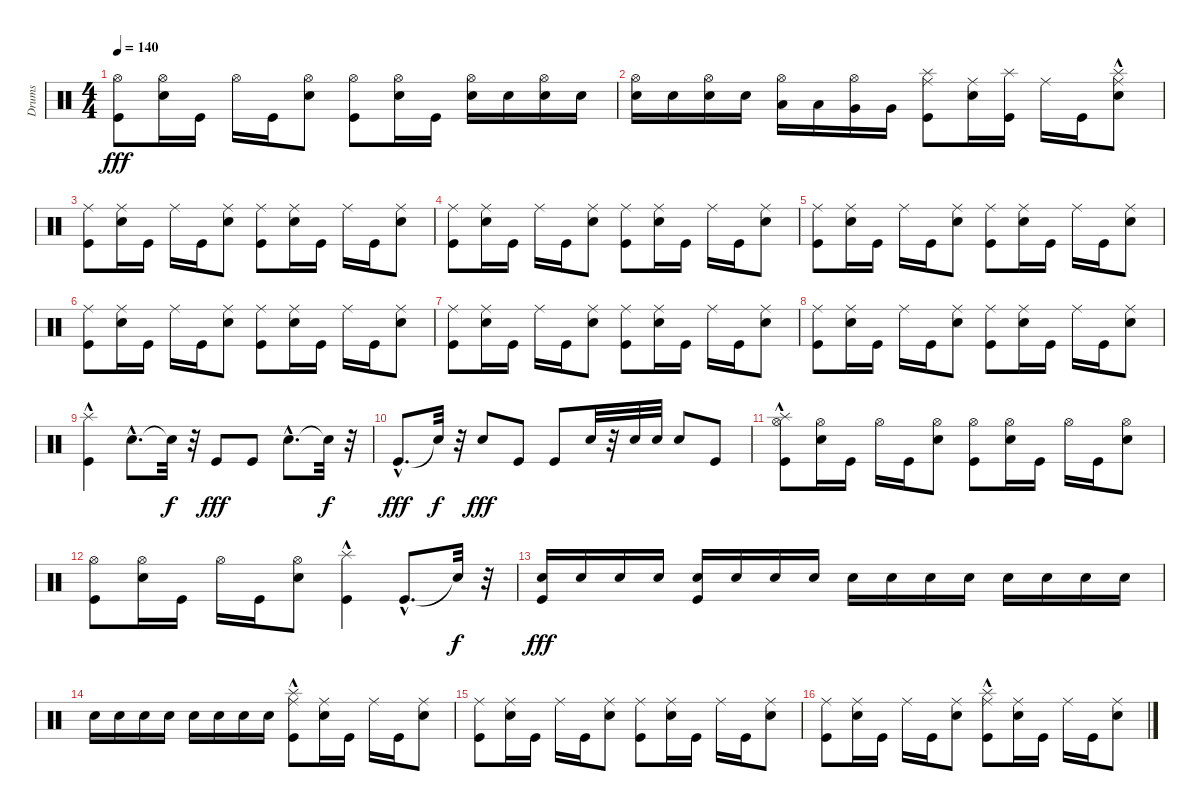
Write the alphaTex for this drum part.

\track ("Drums" "Drums") {instrument percussion}
\staff {score}
\articulation defaults
\ts (4 4)
\tempo 140
\clef neutral
\ks c
("Kick (hit)" "Hi-Hat (open)").8{dy fff} ("Electric Snare (hit)" "Hi-Hat (open)").16 "Kick (hit)".16 "Hi-Hat (open)".16 "Kick (hit)".16 ("Electric Snare (hit)" "Hi-Hat (open)").8 ("Kick (hit)" "Hi-Hat (open)").8 ("Hi-Hat (open)" "Electric Snare (hit)").16 "Kick (hit)".16 ("Electric Snare (hit)" "Hi-Hat (open)").16 "Electric Snare (hit)".16 ("Electric Snare (hit)" "Hi-Hat (open)").16 "Electric Snare (hit)".16 |
("Hi-Hat (open)" "Electric Snare (hit)").16 "Electric Snare (hit)".16 ("Hi-Hat (open)" "Electric Snare (hit)").16 "Electric Snare (hit)".16 ("Hi-Hat (open)" "Low Tom (hit)").16 "Low Tom (hit)".16 ("Very Low Tom (hit)" "Hi-Hat (open)").16 "Very Low Tom (hit)".16 ("Kick (hit)" "Splash (hit)" "Ride (middle)").8 ("Electric Snare (hit)" "Ride (middle)").16 ("Kick (hit)" "Splash (hit)").16 "Ride (middle)".16 "Kick (hit)".16 ("Electric Snare (hit)" "Splash (hit)"{hac} "Ride (middle)").8 |
("Kick (hit)" "Ride (middle)").8 ("Ride (middle)" "Electric Snare (hit)").16 "Kick (hit)".16 "Ride (middle)".16 "Kick (hit)".16 ("Electric Snare (hit)" "Ride (middle)").8 ("Kick (hit)" "Ride (middle)").8 ("Electric Snare (hit)" "Ride (middle)").16 "Kick (hit)".16 "Ride (middle)".16 "Kick (hit)".16 ("Ride (middle)" "Electric Snare (hit)").8 |
("Ride (middle)" "Kick (hit)").8 ("Electric Snare (hit)" "Ride (middle)").16 "Kick (hit)".16 "Ride (middle)".16 "Kick (hit)".16 ("Electric Snare (hit)" "Ride (middle)").8 ("Ride (middle)" "Kick (hit)").8 ("Electric Snare (hit)" "Ride (middle)").16 "Kick (hit)".16 "Ride (middle)".16 "Kick (hit)".16 ("Ride (middle)" "Electric Snare (hit)").8 |
("Kick (hit)" "Ride (middle)").8 ("Electric Snare (hit)" "Ride (middle)").16 "Kick (hit)".16 "Ride (middle)".16 "Kick (hit)".16 ("Ride (middle)" "Electric Snare (hit)").8 ("Ride (middle)" "Kick (hit)").8 ("Electric Snare (hit)" "Ride (middle)").16 "Kick (hit)".16 "Ride (middle)".16 "Kick (hit)".16 ("Ride (middle)" "Electric Snare (hit)").8 |
("Ride (middle)" "Kick (hit)").8 ("Ride (middle)" "Electric Snare (hit)").16 "Kick (hit)".16 "Ride (middle)".16 "Kick (hit)".16 ("Electric Snare (hit)" "Ride (middle)").8 ("Kick (hit)" "Ride (middle)").8 ("Electric Snare (hit)" "Ride (middle)").16 "Kick (hit)".16 "Ride (middle)".16 "Kick (hit)".16 ("Ride (middle)" "Electric Snare (hit)").8 |
("Ride (middle)" "Kick (hit)").8 ("Ride (middle)" "Electric Snare (hit)").16 "Kick (hit)".16 "Ride (middle)".16 "Kick (hit)".16 ("Electric Snare (hit)" "Ride (middle)").8 ("Ride (middle)" "Kick (hit)").8 ("Ride (middle)" "Electric Snare (hit)").16 "Kick (hit)".16 "Ride (middle)".16 "Kick (hit)".16 ("Electric Snare (hit)" "Ride (middle)").8 |
("Kick (hit)" "Ride (middle)").8 ("Electric Snare (hit)" "Ride (middle)").16 "Kick (hit)".16 "Ride (middle)".16 "Kick (hit)".16 ("Ride (middle)" "Electric Snare (hit)").8 ("Kick (hit)" "Ride (middle)").8 ("Electric Snare (hit)" "Ride (middle)").16 "Kick (hit)".16 "Ride (middle)".16 "Kick (hit)".16 ("Electric Snare (hit)" "Ride (middle)").8 |
("Splash (hit)"{hac} "Kick (hit)"{hac}).4 "Electric Snare (hit)"{hac}.8{d} "Snare (hit)"{t}.32{dy f} r.32 "Kick (hit)".8{dy fff} "Kick (hit)".8 "Electric Snare (hit)"{hac}.8{d} "Snare (hit)"{t}.32{dy f} r.32 |
"Kick (hit)"{hac}.8{d dy fff} "Snare (hit)"{t}.32{dy f} r.32 "Electric Snare (hit)".8{dy fff} "Kick (hit)".8 "Kick (hit)".8 "Electric Snare (hit)".32 r.32 "Electric Snare (hit)".32 "Electric Snare (hit)".32 "Electric Snare (hit)".8 "Kick (hit)".8 |
("Splash (hit)"{hac} "Kick (hit)" "Hi-Hat (open)").8 ("Hi-Hat (open)" "Electric Snare (hit)").16 "Kick (hit)".16 "Hi-Hat (open)".16 "Kick (hit)".16 ("Hi-Hat (open)" "Electric Snare (hit)").8 ("Kick (hit)" "Hi-Hat (open)").8 ("Hi-Hat (open)" "Electric Snare (hit)").16 "Kick (hit)".16 "Hi-Hat (open)".16 "Kick (hit)".16 ("Hi-Hat (open)" "Electric Snare (hit)").8 |
("Kick (hit)" "Hi-Hat (open)").8 ("Hi-Hat (open)" "Electric Snare (hit)").16 "Kick (hit)".16 "Hi-Hat (open)".16 "Kick (hit)".16 ("Electric Snare (hit)" "Hi-Hat (open)").8 ("Splash (hit)"{hac} "Kick (hit)"{hac}).4 "Kick (hit)"{hac}.8{d} "Snare (hit)"{t}.32{dy f} r.32 |
("Kick (hit)" "Electric Snare (hit)").16{dy fff} "Electric Snare (hit)".16 "Electric Snare (hit)".16 "Electric Snare (hit)".16 ("Electric Snare (hit)" "Kick (hit)").16 "Electric Snare (hit)".16 "Electric Snare (hit)".16 "Electric Snare (hit)".16 "Electric Snare (hit)".16 "Electric Snare (hit)".16 "Electric Snare (hit)".16 "Electric Snare (hit)".16 "Electric Snare (hit)".16 "Electric Snare (hit)".16 "Electric Snare (hit)".16 "Electric Snare (hit)".16 |
"Electric Snare (hit)".16 "Electric Snare (hit)".16 "Electric Snare (hit)".16 "Electric Snare (hit)".16 "Electric Snare (hit)".16 "Electric Snare (hit)".16 "Electric Snare (hit)".16 "Electric Snare (hit)".16 ("Splash (hit)"{hac} "Ride (middle)" "Kick (hit)").8 ("Ride (middle)" "Electric Snare (hit)").16 "Kick (hit)".16 "Ride (middle)".16 "Kick (hit)".16 ("Electric Snare (hit)" "Ride (middle)").8 |
("Kick (hit)" "Ride (middle)").8 ("Electric Snare (hit)" "Ride (middle)").16 "Kick (hit)".16 "Ride (middle)".16 "Kick (hit)".16 ("Ride (middle)" "Electric Snare (hit)").8 ("Ride (middle)" "Kick (hit)").8 ("Electric Snare (hit)" "Ride (middle)").16 "Kick (hit)".16 "Ride (middle)".16 "Kick (hit)".16 ("Ride (middle)" "Electric Snare (hit)").8 |
("Kick (hit)" "Ride (middle)").8 ("Electric Snare (hit)" "Ride (middle)").16 "Kick (hit)".16 "Ride (middle)".16 "Kick (hit)".16 ("Electric Snare (hit)" "Ride (middle)").8 ("Ride (middle)" "Splash (hit)"{hac} "Kick (hit)").8 ("Electric Snare (hit)" "Ride (middle)").16 "Kick (hit)".16 "Ride (middle)".16 "Kick (hit)".16 ("Ride (middle)" "Electric Snare (hit)").8
